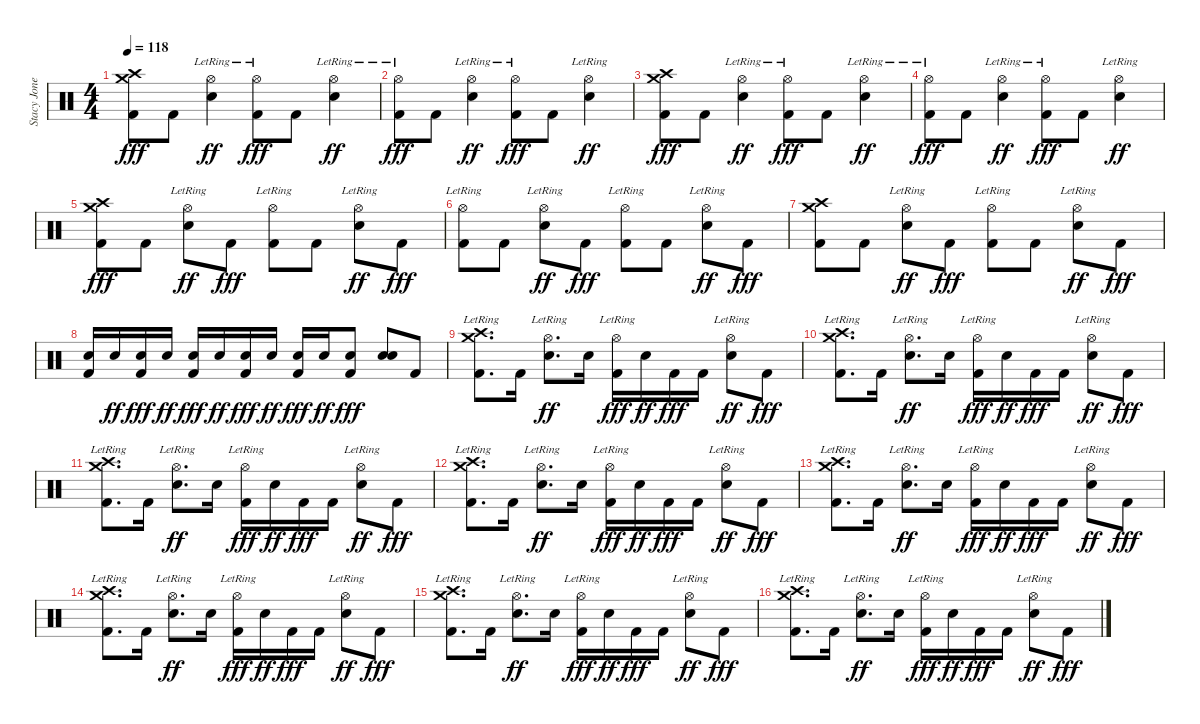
\track ("Stacy Jones: Remo/Sabian HHX/AAX" "Stacy Jone") {instrument percussion}
\staff {score}
\articulation defaults
\ts (4 4)
\tempo 118
\clef neutral
\ks c
("Crash high (hit)" "Crash medium (hit)" "Kick (hit) 2").8{dy fff} "Kick (hit) 2".8 ("Hi-Hat (open)"{lr} "Electric Snare (hit)").4{dy ff} ("Hi-Hat (open)"{lr} "Kick (hit) 2").8{dy fff} "Kick (hit) 2".8 ("Hi-Hat (open)"{lr} "Electric Snare (hit)").4{dy ff} |
("Hi-Hat (open)"{lr} "Kick (hit) 2").8{dy fff} "Kick (hit) 2".8 ("Hi-Hat (open)"{lr} "Electric Snare (hit)").4{dy ff} ("Hi-Hat (open)"{lr} "Kick (hit) 2").8{dy fff} "Kick (hit) 2".8 ("Hi-Hat (open)"{lr} "Electric Snare (hit)").4{dy ff} |
("Crash high (hit)" "Crash medium (hit)" "Kick (hit) 2").8{dy fff} "Kick (hit) 2".8 ("Hi-Hat (open)"{lr} "Electric Snare (hit)").4{dy ff} ("Hi-Hat (open)"{lr} "Kick (hit) 2").8{dy fff} "Kick (hit) 2".8 ("Hi-Hat (open)"{lr} "Electric Snare (hit)").4{dy ff} |
("Hi-Hat (open)"{lr} "Kick (hit) 2").8{dy fff} "Kick (hit) 2".8 ("Hi-Hat (open)"{lr} "Electric Snare (hit)").4{dy ff} ("Hi-Hat (open)"{lr} "Kick (hit) 2").8{dy fff} "Kick (hit) 2".8 ("Hi-Hat (open)"{lr} "Electric Snare (hit)").4{dy ff} |
("Crash high (hit)" "Crash medium (hit)" "Kick (hit) 2").8{dy fff} "Kick (hit) 2".8 ("Hi-Hat (open)"{lr} "Electric Snare (hit)").8{dy ff} "Kick (hit) 2".8{dy fff} ("Hi-Hat (open)"{lr} "Kick (hit) 2").8 "Kick (hit) 2".8 ("Hi-Hat (open)"{lr} "Electric Snare (hit)").8{dy ff} "Kick (hit) 2".8{dy fff} |
("Hi-Hat (open)"{lr} "Kick (hit) 2").8 "Kick (hit) 2".8 ("Hi-Hat (open)"{lr} "Electric Snare (hit)").8{dy ff} "Kick (hit) 2".8{dy fff} ("Hi-Hat (open)"{lr} "Kick (hit) 2").8 "Kick (hit) 2".8 ("Hi-Hat (open)"{lr} "Electric Snare (hit)").8{dy ff} "Kick (hit) 2".8{dy fff} |
("Crash high (hit)" "Crash medium (hit)" "Kick (hit) 2").8 "Kick (hit) 2".8 ("Hi-Hat (open)"{lr} "Electric Snare (hit)").8{dy ff} "Kick (hit) 2".8{dy fff} ("Hi-Hat (open)"{lr} "Kick (hit) 2").8 "Kick (hit) 2".8 ("Hi-Hat (open)"{lr} "Electric Snare (hit)").8{dy ff} "Kick (hit) 2".8{dy fff} |
("Electric Snare (hit)" "Kick (hit) 2").16 "Electric Snare (hit)".16{dy ff} ("Electric Snare (hit)" "Kick (hit) 2").16{dy fff} "Electric Snare (hit)".16{dy ff} ("Electric Snare (hit)" "Kick (hit) 2").16{dy fff} "Electric Snare (hit)".16{dy ff} ("Electric Snare (hit)" "Kick (hit) 2").16{dy fff} "Electric Snare (hit)".16{dy ff} ("Electric Snare (hit)" "Kick (hit) 2").16{dy fff} "Electric Snare (hit)".16{dy ff} ("Electric Snare (hit)" "Kick (hit) 2").8{dy fff} ("Electric Snare (hit)" "Electric Snare (hit)").8 "Kick (hit) 2".8 |
("Crash medium (hit)"{lr} "Crash high (hit)"{lr} "Kick (hit) 2").8{d} "Kick (hit) 2".16 ("Hi-Hat (open)"{lr} "Electric Snare (hit)").8{d dy ff} "Electric Snare (hit)".16 ("Hi-Hat (open)"{lr} "Kick (hit) 2").16{dy fff} "Electric Snare (hit)".16{dy ff} "Kick (hit) 2".16{dy fff} "Kick (hit) 2".16 ("Hi-Hat (open)"{lr} "Electric Snare (hit)").8{dy ff} "Kick (hit) 2".8{dy fff} |
("Crash medium (hit)"{lr} "Crash high (hit)"{lr} "Kick (hit) 2").8{d} "Kick (hit) 2".16 ("Hi-Hat (open)"{lr} "Electric Snare (hit)").8{d dy ff} "Electric Snare (hit)".16 ("Hi-Hat (open)"{lr} "Kick (hit) 2").16{dy fff} "Electric Snare (hit)".16{dy ff} "Kick (hit) 2".16{dy fff} "Kick (hit) 2".16 ("Hi-Hat (open)"{lr} "Electric Snare (hit)").8{dy ff} "Kick (hit) 2".8{dy fff} |
("Crash medium (hit)"{lr} "Crash high (hit)"{lr} "Kick (hit) 2").8{d} "Kick (hit) 2".16 ("Hi-Hat (open)"{lr} "Electric Snare (hit)").8{d dy ff} "Electric Snare (hit)".16 ("Hi-Hat (open)"{lr} "Kick (hit) 2").16{dy fff} "Electric Snare (hit)".16{dy ff} "Kick (hit) 2".16{dy fff} "Kick (hit) 2".16 ("Hi-Hat (open)"{lr} "Electric Snare (hit)").8{dy ff} "Kick (hit) 2".8{dy fff} |
("Crash medium (hit)"{lr} "Crash high (hit)"{lr} "Kick (hit) 2").8{d} "Kick (hit) 2".16 ("Hi-Hat (open)"{lr} "Electric Snare (hit)").8{d dy ff} "Electric Snare (hit)".16 ("Hi-Hat (open)"{lr} "Kick (hit) 2").16{dy fff} "Electric Snare (hit)".16{dy ff} "Kick (hit) 2".16{dy fff} "Kick (hit) 2".16 ("Hi-Hat (open)"{lr} "Electric Snare (hit)").8{dy ff} "Kick (hit) 2".8{dy fff} |
("Crash medium (hit)"{lr} "Crash high (hit)"{lr} "Kick (hit) 2").8{d} "Kick (hit) 2".16 ("Hi-Hat (open)"{lr} "Electric Snare (hit)").8{d dy ff} "Electric Snare (hit)".16 ("Hi-Hat (open)"{lr} "Kick (hit) 2").16{dy fff} "Electric Snare (hit)".16{dy ff} "Kick (hit) 2".16{dy fff} "Kick (hit) 2".16 ("Hi-Hat (open)"{lr} "Electric Snare (hit)").8{dy ff} "Kick (hit) 2".8{dy fff} |
("Crash medium (hit)"{lr} "Crash high (hit)"{lr} "Kick (hit) 2").8{d} "Kick (hit) 2".16 ("Hi-Hat (open)"{lr} "Electric Snare (hit)").8{d dy ff} "Electric Snare (hit)".16 ("Hi-Hat (open)"{lr} "Kick (hit) 2").16{dy fff} "Electric Snare (hit)".16{dy ff} "Kick (hit) 2".16{dy fff} "Kick (hit) 2".16 ("Hi-Hat (open)"{lr} "Electric Snare (hit)").8{dy ff} "Kick (hit) 2".8{dy fff} |
("Crash medium (hit)"{lr} "Crash high (hit)"{lr} "Kick (hit) 2").8{d} "Kick (hit) 2".16 ("Hi-Hat (open)"{lr} "Electric Snare (hit)").8{d dy ff} "Electric Snare (hit)".16 ("Hi-Hat (open)"{lr} "Kick (hit) 2").16{dy fff} "Electric Snare (hit)".16{dy ff} "Kick (hit) 2".16{dy fff} "Kick (hit) 2".16 ("Hi-Hat (open)"{lr} "Electric Snare (hit)").8{dy ff} "Kick (hit) 2".8{dy fff} |
("Crash medium (hit)"{lr} "Crash high (hit)"{lr} "Kick (hit) 2").8{d} "Kick (hit) 2".16 ("Hi-Hat (open)"{lr} "Electric Snare (hit)").8{d dy ff} "Electric Snare (hit)".16 ("Hi-Hat (open)"{lr} "Kick (hit) 2").16{dy fff} "Electric Snare (hit)".16{dy ff} "Kick (hit) 2".16{dy fff} "Kick (hit) 2".16 ("Hi-Hat (open)"{lr} "Electric Snare (hit)").8{dy ff} "Kick (hit) 2".8{dy fff}
